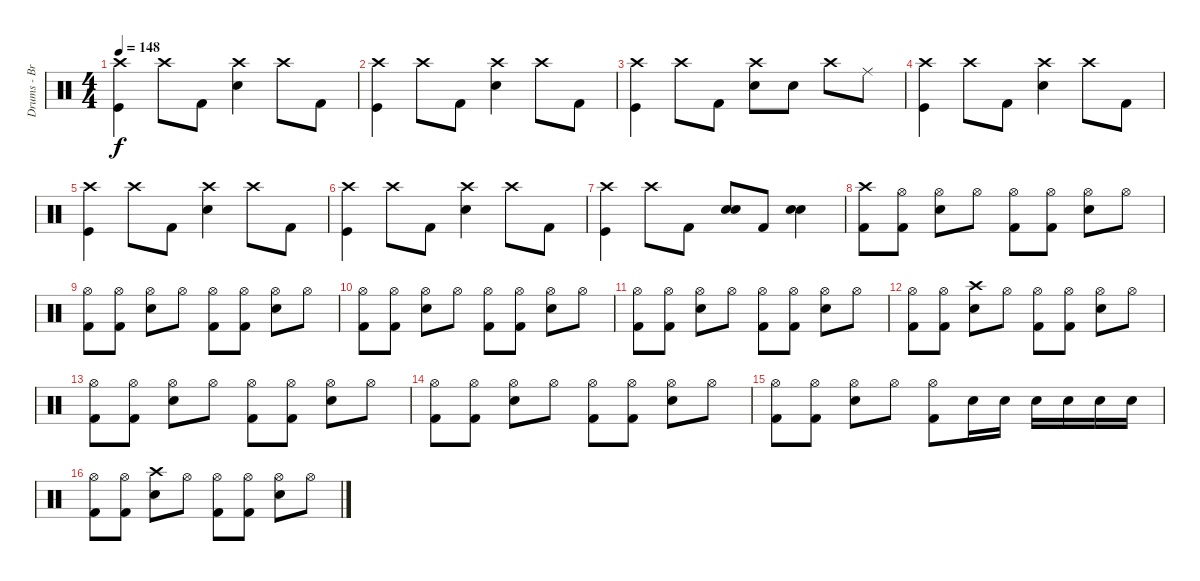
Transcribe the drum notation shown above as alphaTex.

\track ("Drums - Brandon Barnes" "Drums - Br") {instrument percussion}
\staff {score}
\articulation defaults
\ts (4 4)
\tempo 148
\clef neutral
\ks c
("Crash high (hit)" "Kick (hit)").4{dy f} "Crash high (hit)".8 "Kick (hit) 2".8 ("Snare (hit) 2" "Crash high (hit)").4 "Crash high (hit)".8 "Kick (hit) 2".8 |
("Crash high (hit)" "Kick (hit)").4 "Crash high (hit)".8 "Kick (hit) 2".8 ("Snare (hit) 2" "Crash high (hit)").4 "Crash high (hit)".8 "Kick (hit) 2".8 |
("Crash high (hit)" "Kick (hit)").4 "Crash high (hit)".8 "Kick (hit) 2".8 ("Snare (hit) 2" "Crash high (hit)").8 "Snare (hit) 2".8 "Crash high (hit)".8 "Ride (middle)".8 |
("Crash high (hit)" "Kick (hit)").4 "Crash high (hit)".8 "Kick (hit) 2".8 ("Snare (hit) 2" "Crash high (hit)").4 "Crash high (hit)".8 "Kick (hit) 2".8 |
("Crash high (hit)" "Kick (hit)").4 "Crash high (hit)".8 "Kick (hit) 2".8 ("Snare (hit) 2" "Crash high (hit)").4 "Crash high (hit)".8 "Kick (hit) 2".8 |
("Crash high (hit)" "Kick (hit)").4 "Crash high (hit)".8 "Kick (hit) 2".8 ("Snare (hit) 2" "Crash high (hit)").4 "Crash high (hit)".8 "Kick (hit) 2".8 |
("Crash high (hit)" "Kick (hit)").4 "Crash high (hit)".8 "Kick (hit) 2".8 ("Snare (hit) 2" "Electric Snare (hit)").8 "Kick (hit) 2".8 ("Snare (hit) 2" "Electric Snare (hit)").4 |
("Crash high (hit)" "Kick (hit) 2").8 ("Kick (hit) 2" "Hi-Hat (open)").8 ("Hi-Hat (open)" "Snare (hit) 2").8 "Hi-Hat (open)".8 ("Hi-Hat (open)" "Kick (hit) 2").8 ("Hi-Hat (open)" "Kick (hit) 2").8 ("Hi-Hat (open)" "Snare (hit) 2").8 "Hi-Hat (open)".8 |
("Hi-Hat (open)" "Kick (hit) 2").8 ("Hi-Hat (open)" "Kick (hit) 2").8 ("Hi-Hat (open)" "Snare (hit) 2").8 "Hi-Hat (open)".8 ("Hi-Hat (open)" "Kick (hit) 2").8 ("Hi-Hat (open)" "Kick (hit) 2").8 ("Hi-Hat (open)" "Snare (hit) 2").8 "Hi-Hat (open)".8 |
("Hi-Hat (open)" "Kick (hit) 2").8 ("Hi-Hat (open)" "Kick (hit) 2").8 ("Hi-Hat (open)" "Snare (hit) 2").8 "Hi-Hat (open)".8 ("Hi-Hat (open)" "Kick (hit) 2").8 ("Hi-Hat (open)" "Kick (hit) 2").8 ("Hi-Hat (open)" "Snare (hit) 2").8 "Hi-Hat (open)".8 |
("Hi-Hat (open)" "Kick (hit) 2").8 ("Hi-Hat (open)" "Kick (hit) 2").8 ("Hi-Hat (open)" "Snare (hit) 2").8 "Hi-Hat (open)".8 ("Hi-Hat (open)" "Kick (hit) 2").8 ("Hi-Hat (open)" "Kick (hit) 2").8 ("Hi-Hat (open)" "Snare (hit) 2").8 "Hi-Hat (open)".8 |
("Hi-Hat (open)" "Kick (hit) 2").8 ("Hi-Hat (open)" "Kick (hit) 2").8 ("Crash high (hit)" "Snare (hit) 2").8 "Hi-Hat (open)".8 ("Hi-Hat (open)" "Kick (hit) 2").8 ("Hi-Hat (open)" "Kick (hit) 2").8 ("Hi-Hat (open)" "Snare (hit) 2").8 "Hi-Hat (open)".8 |
("Hi-Hat (open)" "Kick (hit) 2").8 ("Hi-Hat (open)" "Kick (hit) 2").8 ("Hi-Hat (open)" "Snare (hit) 2").8 "Hi-Hat (open)".8 ("Hi-Hat (open)" "Kick (hit) 2").8 ("Hi-Hat (open)" "Kick (hit) 2").8 ("Hi-Hat (open)" "Snare (hit) 2").8 "Hi-Hat (open)".8 |
("Hi-Hat (open)" "Kick (hit) 2").8 ("Hi-Hat (open)" "Kick (hit) 2").8 ("Hi-Hat (open)" "Snare (hit) 2").8 "Hi-Hat (open)".8 ("Hi-Hat (open)" "Kick (hit) 2").8 ("Hi-Hat (open)" "Kick (hit) 2").8 ("Hi-Hat (open)" "Snare (hit) 2").8 "Hi-Hat (open)".8 |
("Hi-Hat (open)" "Kick (hit) 2").8 ("Hi-Hat (open)" "Kick (hit) 2").8 ("Hi-Hat (open)" "Snare (hit) 2").8 "Hi-Hat (open)".8 ("Hi-Hat (open)" "Kick (hit) 2").8 "Snare (hit) 2".16 "Snare (hit) 2".16 "Snare (hit) 2".16 "Snare (hit) 2".16 "Snare (hit) 2".16 "Snare (hit) 2".16 |
("Hi-Hat (open)" "Kick (hit) 2").8 ("Hi-Hat (open)" "Kick (hit) 2").8 ("Crash high (hit)" "Snare (hit) 2").8 "Hi-Hat (open)".8 ("Hi-Hat (open)" "Kick (hit) 2").8 ("Hi-Hat (open)" "Kick (hit) 2").8 ("Hi-Hat (open)" "Snare (hit) 2").8 "Hi-Hat (open)".8
